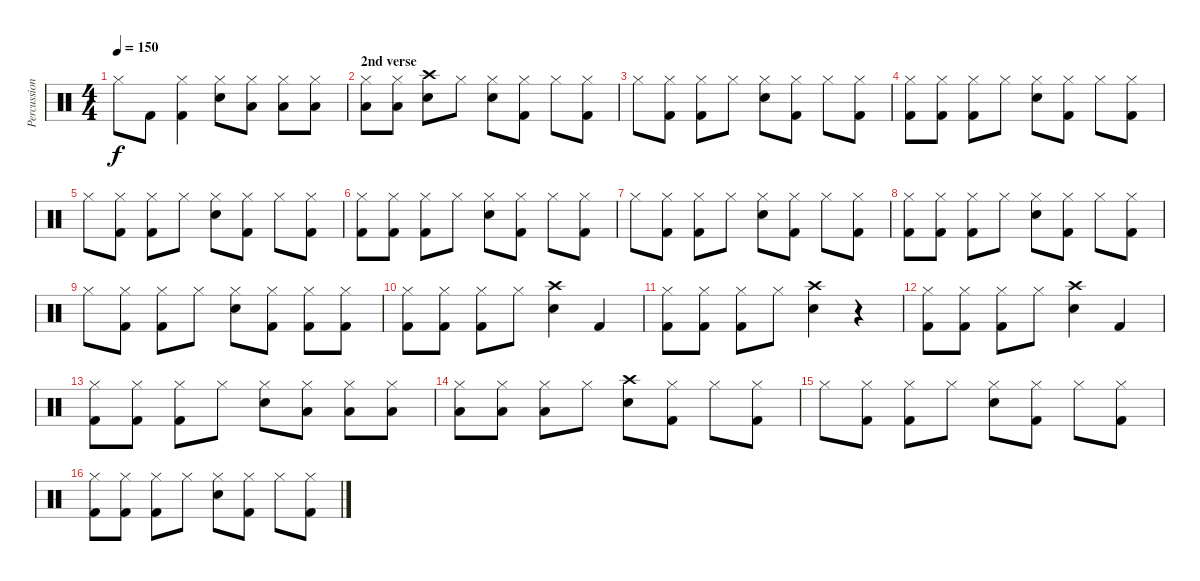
\track ("Percussion" "Percussion") {instrument percussion}
\staff {score}
\articulation defaults
\ts (4 4)
\tempo 150
\clef neutral
\ks c "Hi-Hat (closed)".8{dy f} "Kick (hit) 2".8
("Hi-Hat (closed)" "Kick (hit) 2").4 ("Hi-Hat (closed)" "Electric Snare (hit)").8 ("Low Tom (hit)" "Hi-Hat (closed)").8 ("Low Tom (hit)" "Hi-Hat (closed)").8 ("Low Tom (hit)" "Hi-Hat (closed)").8 |
\section ("" "2nd verse")
("Low Tom (hit)" "Hi-Hat (closed)").8 ("Low Tom (hit)" "Hi-Hat (closed)").8 ("Crash high (hit)" "Electric Snare (hit)").8 "Hi-Hat (closed)".8 ("Hi-Hat (closed)" "Electric Snare (hit)").8 ("Hi-Hat (closed)" "Kick (hit) 2").8 "Hi-Hat (closed)".8 ("Hi-Hat (closed)" "Kick (hit) 2").8 |
"Hi-Hat (closed)".8 ("Hi-Hat (closed)" "Kick (hit) 2").8 ("Hi-Hat (closed)" "Kick (hit) 2").8 "Hi-Hat (closed)".8 ("Hi-Hat (closed)" "Electric Snare (hit)").8 ("Hi-Hat (closed)" "Kick (hit) 2").8 "Hi-Hat (closed)".8 ("Hi-Hat (closed)" "Kick (hit) 2").8 |
("Hi-Hat (closed)" "Kick (hit) 2").8 ("Hi-Hat (closed)" "Kick (hit) 2").8 ("Hi-Hat (closed)" "Kick (hit) 2").8 "Hi-Hat (closed)".8 ("Hi-Hat (closed)" "Electric Snare (hit)").8 ("Hi-Hat (closed)" "Kick (hit) 2").8 "Hi-Hat (closed)".8 ("Hi-Hat (closed)" "Kick (hit) 2").8 |
"Hi-Hat (closed)".8 ("Hi-Hat (closed)" "Kick (hit) 2").8 ("Hi-Hat (closed)" "Kick (hit) 2").8 "Hi-Hat (closed)".8 ("Hi-Hat (closed)" "Electric Snare (hit)").8 ("Hi-Hat (closed)" "Kick (hit) 2").8 "Hi-Hat (closed)".8 ("Hi-Hat (closed)" "Kick (hit) 2").8 |
("Hi-Hat (closed)" "Kick (hit) 2").8 ("Hi-Hat (closed)" "Kick (hit) 2").8 ("Hi-Hat (closed)" "Kick (hit) 2").8 "Hi-Hat (closed)".8 ("Hi-Hat (closed)" "Electric Snare (hit)").8 ("Hi-Hat (closed)" "Kick (hit) 2").8 "Hi-Hat (closed)".8 ("Hi-Hat (closed)" "Kick (hit) 2").8 |
"Hi-Hat (closed)".8 ("Hi-Hat (closed)" "Kick (hit) 2").8 ("Hi-Hat (closed)" "Kick (hit) 2").8 "Hi-Hat (closed)".8 ("Hi-Hat (closed)" "Electric Snare (hit)").8 ("Hi-Hat (closed)" "Kick (hit) 2").8 "Hi-Hat (closed)".8 ("Hi-Hat (closed)" "Kick (hit) 2").8 |
("Hi-Hat (closed)" "Kick (hit) 2").8 ("Hi-Hat (closed)" "Kick (hit) 2").8 ("Hi-Hat (closed)" "Kick (hit) 2").8 "Hi-Hat (closed)".8 ("Hi-Hat (closed)" "Electric Snare (hit)").8 ("Hi-Hat (closed)" "Kick (hit) 2").8 "Hi-Hat (closed)".8 ("Hi-Hat (closed)" "Kick (hit) 2").8 |
"Hi-Hat (closed)".8 ("Hi-Hat (closed)" "Kick (hit) 2").8 ("Hi-Hat (closed)" "Kick (hit) 2").8 "Hi-Hat (closed)".8 ("Hi-Hat (closed)" "Electric Snare (hit)").8 ("Hi-Hat (closed)" "Kick (hit) 2").8 ("Hi-Hat (closed)" "Kick (hit) 2").8 ("Hi-Hat (closed)" "Kick (hit) 2").8 |
("Hi-Hat (closed)" "Kick (hit) 2").8 ("Hi-Hat (closed)" "Kick (hit) 2").8 ("Hi-Hat (closed)" "Kick (hit) 2").8 "Hi-Hat (closed)".8 ("Crash high (hit)" "Electric Snare (hit)").4 "Kick (hit) 2".4 |
("Hi-Hat (closed)" "Kick (hit) 2").8 ("Hi-Hat (closed)" "Kick (hit) 2").8 ("Hi-Hat (closed)" "Kick (hit) 2").8 "Hi-Hat (closed)".8 ("Crash high (hit)" "Electric Snare (hit)").4 r.4 |
("Hi-Hat (closed)" "Kick (hit) 2").8 ("Hi-Hat (closed)" "Kick (hit) 2").8 ("Hi-Hat (closed)" "Kick (hit) 2").8 "Hi-Hat (closed)".8 ("Crash high (hit)" "Electric Snare (hit)").4 "Kick (hit) 2".4 |
("Hi-Hat (closed)" "Kick (hit) 2").8 ("Hi-Hat (closed)" "Kick (hit) 2").8 ("Hi-Hat (closed)" "Kick (hit) 2").8 "Hi-Hat (closed)".8 ("Hi-Hat (closed)" "Electric Snare (hit)").8 ("Low Tom (hit)" "Hi-Hat (closed)").8 ("Low Tom (hit)" "Hi-Hat (closed)").8 ("Low Tom (hit)" "Hi-Hat (closed)").8 |
("Low Tom (hit)" "Hi-Hat (closed)").8 ("Low Tom (hit)" "Hi-Hat (closed)").8 ("Low Tom (hit)" "Hi-Hat (closed)").8 "Hi-Hat (closed)".8 ("Crash high (hit)" "Electric Snare (hit)").8 ("Hi-Hat (closed)" "Kick (hit) 2").8 "Hi-Hat (closed)".8 ("Hi-Hat (closed)" "Kick (hit) 2").8 |
"Hi-Hat (closed)".8 ("Hi-Hat (closed)" "Kick (hit) 2").8 ("Hi-Hat (closed)" "Kick (hit) 2").8 "Hi-Hat (closed)".8 ("Hi-Hat (closed)" "Electric Snare (hit)").8 ("Hi-Hat (closed)" "Kick (hit) 2").8 "Hi-Hat (closed)".8 ("Hi-Hat (closed)" "Kick (hit) 2").8 |
("Hi-Hat (closed)" "Kick (hit) 2").8 ("Hi-Hat (closed)" "Kick (hit) 2").8 ("Hi-Hat (closed)" "Kick (hit) 2").8 "Hi-Hat (closed)".8 ("Hi-Hat (closed)" "Electric Snare (hit)").8 ("Hi-Hat (closed)" "Kick (hit) 2").8 "Hi-Hat (closed)".8 ("Hi-Hat (closed)" "Kick (hit) 2").8
